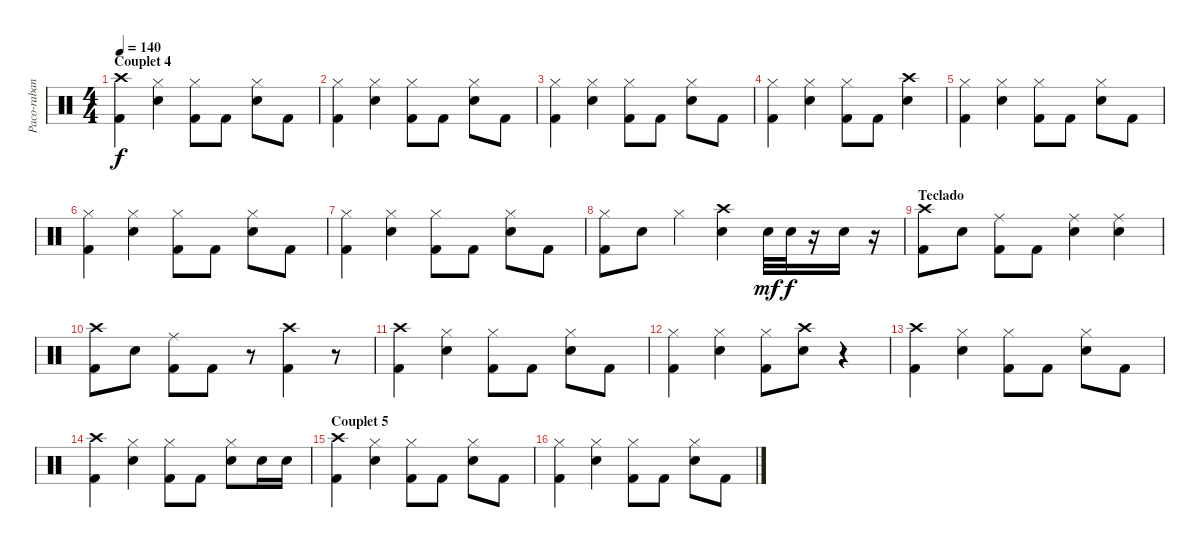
\track ("Paco-rabane" "Paco-raban") {instrument percussion}
\staff {score}
\articulation defaults
\ts (4 4)
\section ("" "Couplet 4")
\tempo 140
\clef neutral
\ks c
("Crash high (hit)" "Kick (hit) 2").4{dy f} ("Hi-Hat (closed)" "Snare (hit) 2").4 ("Hi-Hat (closed)" "Kick (hit) 2").8 "Kick (hit) 2".8 ("Hi-Hat (closed)" "Snare (hit) 2").8 "Kick (hit) 2".8 |
("Hi-Hat (closed)" "Kick (hit) 2").4 ("Hi-Hat (closed)" "Snare (hit) 2").4 ("Hi-Hat (closed)" "Kick (hit) 2").8 "Kick (hit) 2".8 ("Hi-Hat (closed)" "Snare (hit) 2").8 "Kick (hit) 2".8 |
("Hi-Hat (closed)" "Kick (hit) 2").4 ("Hi-Hat (closed)" "Snare (hit) 2").4 ("Hi-Hat (closed)" "Kick (hit) 2").8 "Kick (hit) 2".8 ("Hi-Hat (closed)" "Snare (hit) 2").8 "Kick (hit) 2".8 |
("Hi-Hat (closed)" "Kick (hit) 2").4 ("Hi-Hat (closed)" "Snare (hit) 2").4 ("Hi-Hat (closed)" "Kick (hit) 2").8 "Kick (hit) 2".8 ("Crash high (hit)" "Snare (hit) 2").4 |
("Hi-Hat (closed)" "Kick (hit) 2").4 ("Hi-Hat (closed)" "Snare (hit) 2").4 ("Hi-Hat (closed)" "Kick (hit) 2").8 "Kick (hit) 2".8 ("Hi-Hat (closed)" "Snare (hit) 2").8 "Kick (hit) 2".8 |
("Hi-Hat (closed)" "Kick (hit) 2").4 ("Hi-Hat (closed)" "Snare (hit) 2").4 ("Hi-Hat (closed)" "Kick (hit) 2").8 "Kick (hit) 2".8 ("Hi-Hat (closed)" "Snare (hit) 2").8 "Kick (hit) 2".8 |
("Hi-Hat (closed)" "Kick (hit) 2").4 ("Hi-Hat (closed)" "Snare (hit) 2").4 ("Hi-Hat (closed)" "Kick (hit) 2").8 "Kick (hit) 2".8 ("Hi-Hat (closed)" "Snare (hit) 2").8 "Kick (hit) 2".8 |
("Hi-Hat (closed)" "Kick (hit) 2").8 "Snare (hit) 2".8 "Hi-Hat (closed)".4 ("Crash high (hit)" "Snare (hit) 2").4 "Snare (hit) 2".32{dy mf} "Snare (hit) 2".32{dy f} r.16 "Snare (hit) 2".16 r.16 |
\section ("" "Teclado")
("Crash high (hit)" "Kick (hit) 2").8 "Snare (hit) 2".8 ("Ride (middle)" "Kick (hit) 2").8 "Kick (hit) 2".8 ("Ride (middle)" "Snare (hit) 2").4 ("Ride (middle)" "Snare (hit) 2").4 |
("Crash high (hit)" "Kick (hit) 2").8 "Snare (hit) 2".8 ("Ride (middle)" "Kick (hit) 2").8 "Kick (hit) 2".8 r.8 ("Crash high (hit)" "Kick (hit) 2").4 r.8 |
("Crash high (hit)" "Kick (hit) 2").4 ("Hi-Hat (closed)" "Snare (hit) 2").4 ("Hi-Hat (closed)" "Kick (hit) 2").8 "Kick (hit) 2".8 ("Hi-Hat (closed)" "Snare (hit) 2").8 "Kick (hit) 2".8 |
("Hi-Hat (closed)" "Kick (hit) 2").4 ("Hi-Hat (closed)" "Snare (hit) 2").4 ("Hi-Hat (closed)" "Kick (hit) 2").8 ("Crash high (hit)" "Snare (hit) 2").8 r.4 |
("Crash high (hit)" "Kick (hit) 2").4 ("Hi-Hat (closed)" "Snare (hit) 2").4 ("Hi-Hat (closed)" "Kick (hit) 2").8 "Kick (hit) 2".8 ("Hi-Hat (closed)" "Snare (hit) 2").8 "Kick (hit) 2".8 |
("Crash high (hit)" "Kick (hit) 2").4 ("Hi-Hat (closed)" "Snare (hit) 2").4 ("Hi-Hat (closed)" "Kick (hit) 2").8 "Kick (hit) 2".8 ("Hi-Hat (closed)" "Snare (hit) 2").8 "Snare (hit) 2".16 "Snare (hit) 2".16 |
\section ("" "Couplet 5")
("Crash high (hit)" "Kick (hit) 2").4 ("Hi-Hat (closed)" "Snare (hit) 2").4 ("Hi-Hat (closed)" "Kick (hit) 2").8 "Kick (hit) 2".8 ("Hi-Hat (closed)" "Snare (hit) 2").8 "Kick (hit) 2".8 |
("Hi-Hat (closed)" "Kick (hit) 2").4 ("Hi-Hat (closed)" "Snare (hit) 2").4 ("Hi-Hat (closed)" "Kick (hit) 2").8 "Kick (hit) 2".8 ("Hi-Hat (closed)" "Snare (hit) 2").8 "Kick (hit) 2".8
